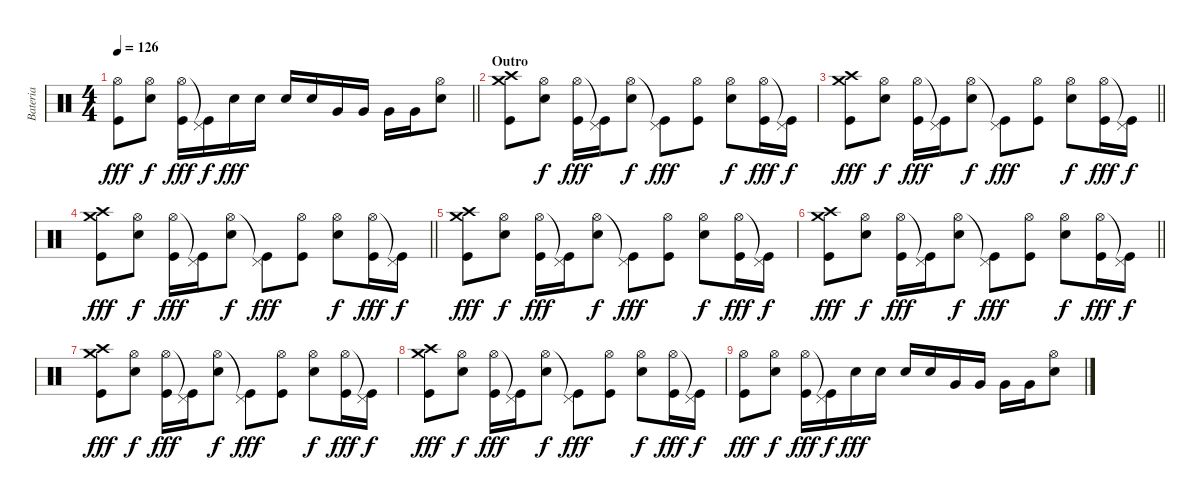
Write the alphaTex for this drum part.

\track ("Bateria" "Bateria") {instrument percussion}
\staff {score}
\articulation defaults
\ts (4 4)
\tempo 126
\clef neutral
\barLineRight lightlight
\ks c
("Hi-Hat (open)" "Kick (hit)").8{dy fff} ("Hi-Hat (open)" "Electric Snare (hit)").8{dy f} ("Hi-Hat (open)" "Kick (hit)").16{dy fff} ("Pedal Hi-Hat (hit)"{t} "Kick (hit)").16{dy f} "Electric Snare (hit)".16{dy fff} "Electric Snare (hit)".16 "Electric Snare (hit)".16 "Electric Snare (hit)".16 "Very Low Tom (hit)".16 "Very Low Tom (hit)".16 "Very Low Tom (hit)".16 "Very Low Tom (hit)".16 ("Hi-Hat (open)" "Electric Snare (hit)").8 |
\section ("" "Outro")
("Crash high (hit)" "Crash medium (hit)" "Kick (hit)").8 ("Hi-Hat (open)" "Electric Snare (hit)").8{dy f} ("Hi-Hat (open)" "Kick (hit)").16{dy fff} ("Pedal Hi-Hat (hit)"{t} "Kick (hit)").16 ("Hi-Hat (open)" "Electric Snare (hit)").8{dy f} ("Pedal Hi-Hat (hit)"{t} "Kick (hit)").8{dy fff} ("Hi-Hat (open)" "Kick (hit)").8 ("Hi-Hat (open)" "Electric Snare (hit)").8{dy f} ("Hi-Hat (open)" "Kick (hit)").16{dy fff} ("Pedal Hi-Hat (hit)"{t} "Kick (hit)").16{dy f} |
\barLineRight lightlight
("Crash high (hit)" "Crash medium (hit)" "Kick (hit)").8{dy fff} ("Hi-Hat (open)" "Electric Snare (hit)").8{dy f} ("Hi-Hat (open)" "Kick (hit)").16{dy fff} ("Pedal Hi-Hat (hit)"{t} "Kick (hit)").16 ("Hi-Hat (open)" "Electric Snare (hit)").8{dy f} ("Pedal Hi-Hat (hit)"{t} "Kick (hit)").8{dy fff} ("Hi-Hat (open)" "Kick (hit)").8 ("Hi-Hat (open)" "Electric Snare (hit)").8{dy f} ("Hi-Hat (open)" "Kick (hit)").16{dy fff} ("Pedal Hi-Hat (hit)"{t} "Kick (hit)").16{dy f} |
\barLineRight lightlight
("Crash high (hit)" "Crash medium (hit)" "Kick (hit)").8{dy fff} ("Hi-Hat (open)" "Electric Snare (hit)").8{dy f} ("Hi-Hat (open)" "Kick (hit)").16{dy fff} ("Pedal Hi-Hat (hit)"{t} "Kick (hit)").16 ("Hi-Hat (open)" "Electric Snare (hit)").8{dy f} ("Pedal Hi-Hat (hit)"{t} "Kick (hit)").8{dy fff} ("Hi-Hat (open)" "Kick (hit)").8 ("Hi-Hat (open)" "Electric Snare (hit)").8{dy f} ("Hi-Hat (open)" "Kick (hit)").16{dy fff} ("Pedal Hi-Hat (hit)"{t} "Kick (hit)").16{dy f} |
("Crash high (hit)" "Crash medium (hit)" "Kick (hit)").8{dy fff} ("Hi-Hat (open)" "Electric Snare (hit)").8{dy f} ("Hi-Hat (open)" "Kick (hit)").16{dy fff} ("Pedal Hi-Hat (hit)"{t} "Kick (hit)").16 ("Hi-Hat (open)" "Electric Snare (hit)").8{dy f} ("Pedal Hi-Hat (hit)"{t} "Kick (hit)").8{dy fff} ("Hi-Hat (open)" "Kick (hit)").8 ("Hi-Hat (open)" "Electric Snare (hit)").8{dy f} ("Hi-Hat (open)" "Kick (hit)").16{dy fff} ("Pedal Hi-Hat (hit)"{t} "Kick (hit)").16{dy f} |
\barLineRight lightlight
("Crash high (hit)" "Crash medium (hit)" "Kick (hit)").8{dy fff} ("Hi-Hat (open)" "Electric Snare (hit)").8{dy f} ("Hi-Hat (open)" "Kick (hit)").16{dy fff} ("Pedal Hi-Hat (hit)"{t} "Kick (hit)").16 ("Hi-Hat (open)" "Electric Snare (hit)").8{dy f} ("Pedal Hi-Hat (hit)"{t} "Kick (hit)").8{dy fff} ("Hi-Hat (open)" "Kick (hit)").8 ("Hi-Hat (open)" "Electric Snare (hit)").8{dy f} ("Hi-Hat (open)" "Kick (hit)").16{dy fff} ("Pedal Hi-Hat (hit)"{t} "Kick (hit)").16{dy f} |
("Crash high (hit)" "Crash medium (hit)" "Kick (hit)").8{dy fff} ("Hi-Hat (open)" "Electric Snare (hit)").8{dy f} ("Hi-Hat (open)" "Kick (hit)").16{dy fff} ("Pedal Hi-Hat (hit)"{t} "Kick (hit)").16 ("Hi-Hat (open)" "Electric Snare (hit)").8{dy f} ("Pedal Hi-Hat (hit)"{t} "Kick (hit)").8{dy fff} ("Hi-Hat (open)" "Kick (hit)").8 ("Hi-Hat (open)" "Electric Snare (hit)").8{dy f} ("Hi-Hat (open)" "Kick (hit)").16{dy fff} ("Pedal Hi-Hat (hit)"{t} "Kick (hit)").16{dy f} |
("Crash high (hit)" "Crash medium (hit)" "Kick (hit)").8{dy fff} ("Hi-Hat (open)" "Electric Snare (hit)").8{dy f} ("Hi-Hat (open)" "Kick (hit)").16{dy fff} ("Pedal Hi-Hat (hit)"{t} "Kick (hit)").16 ("Hi-Hat (open)" "Electric Snare (hit)").8{dy f} ("Pedal Hi-Hat (hit)"{t} "Kick (hit)").8{dy fff} ("Hi-Hat (open)" "Kick (hit)").8 ("Hi-Hat (open)" "Electric Snare (hit)").8{dy f} ("Hi-Hat (open)" "Kick (hit)").16{dy fff} ("Pedal Hi-Hat (hit)"{t} "Kick (hit)").16{dy f} |
("Hi-Hat (open)" "Kick (hit)").8{dy fff} ("Hi-Hat (open)" "Electric Snare (hit)").8{dy f} ("Hi-Hat (open)" "Kick (hit)").16{dy fff} ("Pedal Hi-Hat (hit)"{t} "Kick (hit)").16{dy f} "Electric Snare (hit)".16{dy fff} "Electric Snare (hit)".16 "Electric Snare (hit)".16 "Electric Snare (hit)".16 "Very Low Tom (hit)".16 "Very Low Tom (hit)".16 "Very Low Tom (hit)".16 "Very Low Tom (hit)".16 ("Hi-Hat (open)" "Electric Snare (hit)").8
